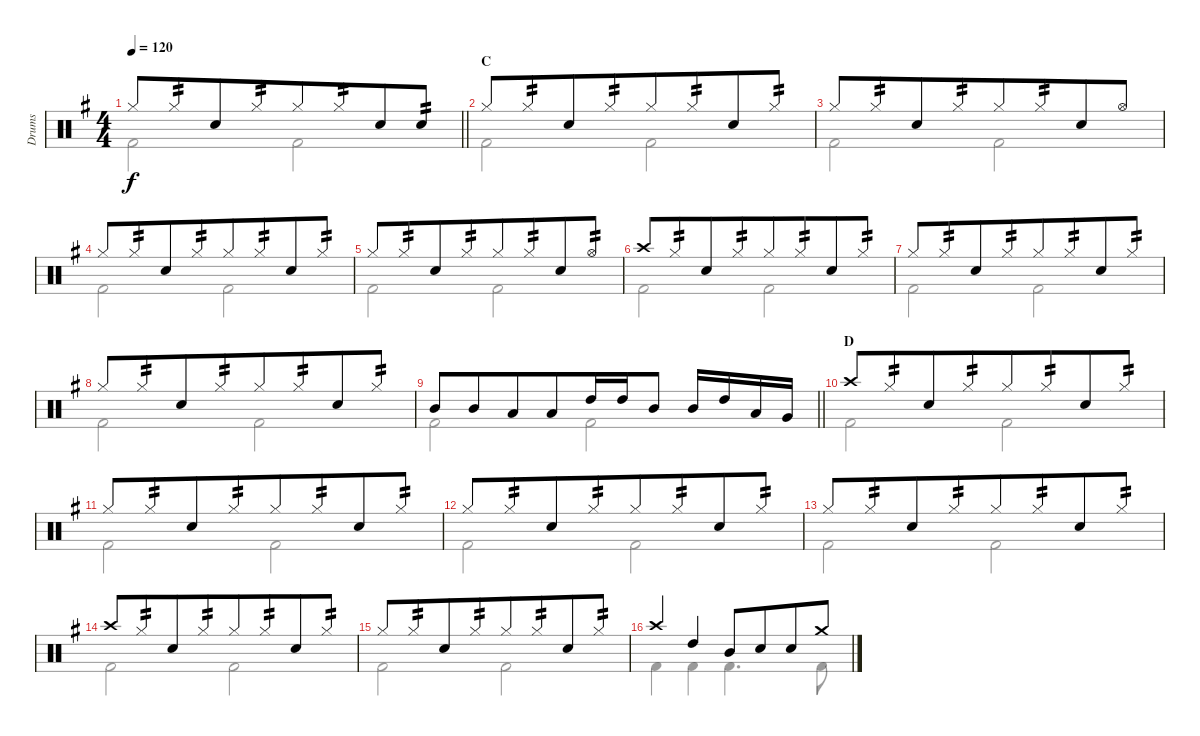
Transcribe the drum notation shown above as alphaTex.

\track ("Drums" "Drums") {instrument percussion}
\staff {score}
\articulation defaults
\voice
\ts (4 4)
\tempo 120
\clef neutral
\barLineRight lightlight
\ks g "Hi-Hat (closed)".8{dy f} "Hi-Hat (closed)".8{tp 2 beam merge} "Snare (hit) 2".8 "Hi-Hat (closed)".8{tp 2 beam merge} "Hi-Hat (closed)".8 "Hi-Hat (closed)".8{tp 2 beam merge} "Snare (hit) 2".8 "Electric Snare (hit)".8{tp 2}
|
\section ("" "C")
"Hi-Hat (closed)".8 "Hi-Hat (closed)".8{tp 2 beam merge} "Snare (hit) 2".8 "Hi-Hat (closed)".8{tp 2 beam merge} "Hi-Hat (closed)".8 "Hi-Hat (closed)".8{tp 2 beam merge} "Snare (hit) 2".8 "Hi-Hat (closed)".8{tp 2} |
"Hi-Hat (closed)".8 "Hi-Hat (closed)".8{tp 2 beam merge} "Snare (hit) 2".8 "Hi-Hat (closed)".8{tp 2 beam merge} "Hi-Hat (closed)".8 "Hi-Hat (closed)".8{tp 2 beam merge} "Snare (hit) 2".8 "Hi-Hat (open)".8 |
"Hi-Hat (closed)".8 "Hi-Hat (closed)".8{tp 2 beam merge} "Snare (hit) 2".8 "Hi-Hat (closed)".8{tp 2 beam merge} "Hi-Hat (closed)".8 "Hi-Hat (closed)".8{tp 2 beam merge} "Snare (hit) 2".8 "Hi-Hat (closed)".8{tp 2} |
"Hi-Hat (closed)".8 "Hi-Hat (closed)".8{tp 2 beam merge} "Snare (hit) 2".8 "Hi-Hat (closed)".8{tp 2 beam merge} "Hi-Hat (closed)".8 "Hi-Hat (closed)".8{tp 2 beam merge} "Snare (hit) 2".8 "Hi-Hat (open)".8{tp 2} |
"Crash high (hit)".8 "Hi-Hat (closed)".8{tp 2 beam merge} "Snare (hit) 2".8 "Hi-Hat (closed)".8{tp 2 beam merge} "Hi-Hat (closed)".8 "Hi-Hat (closed)".8{tp 2 beam merge} "Snare (hit) 2".8 "Hi-Hat (closed)".8{tp 2} |
"Hi-Hat (closed)".8 "Hi-Hat (closed)".8{tp 2 beam merge} "Snare (hit) 2".8 "Hi-Hat (closed)".8{tp 2 beam merge} "Hi-Hat (closed)".8 "Hi-Hat (closed)".8{tp 2 beam merge} "Snare (hit) 2".8 "Hi-Hat (closed)".8{tp 2} |
"Hi-Hat (closed)".8 "Hi-Hat (closed)".8{tp 2 beam merge} "Snare (hit) 2".8 "Hi-Hat (closed)".8{tp 2 beam merge} "Hi-Hat (closed)".8 "Hi-Hat (closed)".8{tp 2 beam merge} "Snare (hit) 2".8 "Hi-Hat (closed)".8{tp 2} |
\barLineRight lightlight "Mid Tom (hit)".8 "Mid Tom (hit)".8{beam merge} "Low Tom (hit)".8 "Low Tom (hit)".8{beam merge} "High Tom (hit)".16 "High Tom (hit)".16{beam merge} "Mid Tom (hit)".8 "Mid Tom (hit)".16 "High Tom (hit)".16 "Low Tom (hit)".16 "Very Low Tom (hit)".16
|
\section ("" "D")
"Crash high (hit)".8 "Hi-Hat (closed)".8{tp 2 beam merge} "Snare (hit) 2".8 "Hi-Hat (closed)".8{tp 2 beam merge} "Hi-Hat (closed)".8 "Hi-Hat (closed)".8{tp 2 beam merge} "Snare (hit) 2".8 "Hi-Hat (closed)".8{tp 2} |
"Hi-Hat (closed)".8 "Hi-Hat (closed)".8{tp 2 beam merge} "Snare (hit) 2".8 "Hi-Hat (closed)".8{tp 2 beam merge} "Hi-Hat (closed)".8 "Hi-Hat (closed)".8{tp 2 beam merge} "Snare (hit) 2".8 "Hi-Hat (closed)".8{tp 2} |
"Hi-Hat (closed)".8 "Hi-Hat (closed)".8{tp 2 beam merge} "Snare (hit) 2".8 "Hi-Hat (closed)".8{tp 2 beam merge} "Hi-Hat (closed)".8 "Hi-Hat (closed)".8{tp 2 beam merge} "Snare (hit) 2".8 "Hi-Hat (closed)".8{tp 2} |
"Hi-Hat (closed)".8 "Hi-Hat (closed)".8{tp 2 beam merge} "Snare (hit) 2".8 "Hi-Hat (closed)".8{tp 2 beam merge} "Hi-Hat (closed)".8 "Hi-Hat (closed)".8{tp 2 beam merge} "Snare (hit) 2".8 "Hi-Hat (closed)".8{tp 2} |
"Crash high (hit)".8 "Hi-Hat (closed)".8{tp 2 beam merge} "Snare (hit) 2".8 "Hi-Hat (closed)".8{tp 2 beam merge} "Hi-Hat (closed)".8 "Hi-Hat (closed)".8{tp 2 beam merge} "Snare (hit) 2".8 "Hi-Hat (closed)".8{tp 2} |
"Hi-Hat (closed)".8 "Hi-Hat (closed)".8{tp 2 beam merge} "Snare (hit) 2".8 "Hi-Hat (closed)".8{tp 2 beam merge} "Hi-Hat (closed)".8 "Hi-Hat (closed)".8{tp 2 beam merge} "Snare (hit) 2".8 "Hi-Hat (closed)".8{tp 2} |
"Crash high (hit)".4 "High Tom (hit)".4 "Mid Tom (hit)".8{beam merge} "Electric Snare (hit)".8{beam merge} "Snare (hit) 2".8{beam merge} "Crash medium (hit)".8
\voice
\clef neutral
\ottava regular
\simile none
\barLineRight lightlight
\ks g "Kick (hit) 2".2{dy f} "Kick (hit) 2".2
|
"Kick (hit) 2".2 "Kick (hit) 2".2 |
"Kick (hit) 2".2 "Kick (hit) 2".2 |
"Kick (hit) 2".2 "Kick (hit) 2".2 |
"Kick (hit) 2".2 "Kick (hit) 2".2 |
"Kick (hit) 2".2 "Kick (hit) 2".2 |
"Kick (hit) 2".2 "Kick (hit) 2".2 |
"Kick (hit) 2".2 "Kick (hit) 2".2 |
\barLineRight lightlight "Kick (hit) 2".2 "Kick (hit) 2".2
|
"Kick (hit) 2".2 "Kick (hit) 2".2 |
"Kick (hit) 2".2 "Kick (hit) 2".2 |
"Kick (hit) 2".2 "Kick (hit) 2".2 |
"Kick (hit) 2".2 "Kick (hit) 2".2 |
"Kick (hit) 2".2 "Kick (hit) 2".2 |
"Kick (hit) 2".2 "Kick (hit) 2".2 |
"Kick (hit) 2".4 "Kick (hit) 2".4 "Kick (hit) 2".4{d} "Kick (hit) 2".8
